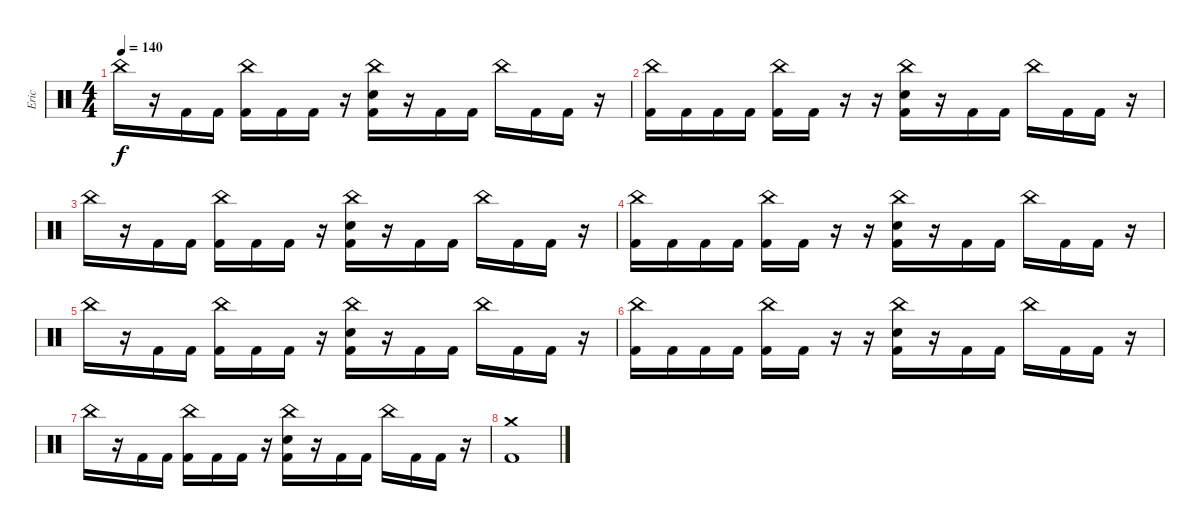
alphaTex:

\track ("Eric" "Eric") {instrument percussion}
\staff {score}
\articulation defaults
\ts (4 4)
\tempo 140
\clef neutral
\ks c "China (hit)".16{dy f}
r.16 "Kick (hit) 2".16 "Kick (hit) 2".16 ("China (hit)" "Kick (hit) 2").16 "Kick (hit) 2".16 "Kick (hit) 2".16 r.16 ("China (hit)" "Electric Snare (hit)" "Kick (hit) 2").16 r.16 "Kick (hit) 2".16 "Kick (hit) 2".16 "China (hit)".16 "Kick (hit) 2".16 "Kick (hit) 2".16 r.16 |
("China (hit)" "Kick (hit) 2").16 "Kick (hit) 2".16 "Kick (hit) 2".16 "Kick (hit) 2".16 ("China (hit)" "Kick (hit) 2").16 "Kick (hit) 2".16 r.16 r.16 ("China (hit)" "Electric Snare (hit)" "Kick (hit) 2").16 r.16 "Kick (hit) 2".16 "Kick (hit) 2".16 "China (hit)".16 "Kick (hit) 2".16 "Kick (hit) 2".16 r.16 |
"China (hit)".16 r.16 "Kick (hit) 2".16 "Kick (hit) 2".16 ("China (hit)" "Kick (hit) 2").16 "Kick (hit) 2".16 "Kick (hit) 2".16 r.16 ("China (hit)" "Electric Snare (hit)" "Kick (hit) 2").16 r.16 "Kick (hit) 2".16 "Kick (hit) 2".16 "China (hit)".16 "Kick (hit) 2".16 "Kick (hit) 2".16 r.16 |
("China (hit)" "Kick (hit) 2").16 "Kick (hit) 2".16 "Kick (hit) 2".16 "Kick (hit) 2".16 ("China (hit)" "Kick (hit) 2").16 "Kick (hit) 2".16 r.16 r.16 ("China (hit)" "Electric Snare (hit)" "Kick (hit) 2").16 r.16 "Kick (hit) 2".16 "Kick (hit) 2".16 "China (hit)".16 "Kick (hit) 2".16 "Kick (hit) 2".16 r.16 |
"China (hit)".16 r.16 "Kick (hit) 2".16 "Kick (hit) 2".16 ("China (hit)" "Kick (hit) 2").16 "Kick (hit) 2".16 "Kick (hit) 2".16 r.16 ("China (hit)" "Electric Snare (hit)" "Kick (hit) 2").16 r.16 "Kick (hit) 2".16 "Kick (hit) 2".16 "China (hit)".16 "Kick (hit) 2".16 "Kick (hit) 2".16 r.16 |
("China (hit)" "Kick (hit) 2").16 "Kick (hit) 2".16 "Kick (hit) 2".16 "Kick (hit) 2".16 ("China (hit)" "Kick (hit) 2").16 "Kick (hit) 2".16 r.16 r.16 ("China (hit)" "Electric Snare (hit)" "Kick (hit) 2").16 r.16 "Kick (hit) 2".16 "Kick (hit) 2".16 "China (hit)".16 "Kick (hit) 2".16 "Kick (hit) 2".16 r.16 |
"China (hit)".16 r.16 "Kick (hit) 2".16 "Kick (hit) 2".16 ("China (hit)" "Kick (hit) 2").16 "Kick (hit) 2".16 "Kick (hit) 2".16 r.16 ("China (hit)" "Electric Snare (hit)" "Kick (hit) 2").16 r.16 "Kick (hit) 2".16 "Kick (hit) 2".16 "China (hit)".16 "Kick (hit) 2".16 "Kick (hit) 2".16 r.16 |
("Crash medium (hit)" "Kick (hit) 2").1
